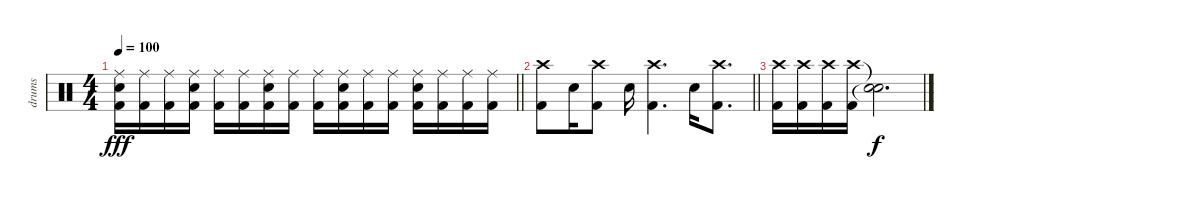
\track ("drums" "drums") {instrument percussion}
\staff {score}
\articulation defaults
\ts (4 4)
\tempo 100
\clef neutral
\barLineRight lightlight
\ks c
("Ride (middle)" "Snare (hit) 2" "Kick (hit) 2").16{dy fff} ("Ride (middle)" "Kick (hit) 2").16 ("Ride (middle)" "Kick (hit) 2").16 ("Ride (middle)" "Snare (hit) 2" "Kick (hit) 2").16 ("Ride (middle)" "Kick (hit) 2").16 ("Ride (middle)" "Kick (hit) 2").16 ("Ride (middle)" "Snare (hit) 2" "Kick (hit) 2").16 ("Ride (middle)" "Kick (hit) 2").16 ("Ride (middle)" "Kick (hit) 2").16 ("Ride (middle)" "Snare (hit) 2" "Kick (hit) 2").16 ("Ride (middle)" "Kick (hit) 2").16 ("Ride (middle)" "Kick (hit) 2").16 ("Ride (middle)" "Snare (hit) 2" "Kick (hit) 2").16 ("Ride (middle)" "Kick (hit) 2").16 ("Ride (middle)" "Kick (hit) 2").16 ("Ride (middle)" "Kick (hit) 2").16 |
\barLineRight lightlight
("Crash high (hit)" "Kick (hit) 2").8 "Snare (hit) 2".16 ("Crash high (hit)" "Kick (hit) 2").8 "Snare (hit) 2".16 ("Crash high (hit)" "Kick (hit) 2").4{d} "Snare (hit) 2".16 ("Crash high (hit)" "Kick (hit) 2").8{d} |
("Crash high (hit)" "Kick (hit) 2").16 ("Crash high (hit)" "Kick (hit) 2").16 ("Crash high (hit)" "Kick (hit) 2").16 ("Crash high (hit)" "Kick (hit) 2").16 ("Snare (hit)"{t} "Snare (hit)"{t}).2{d dy f}
